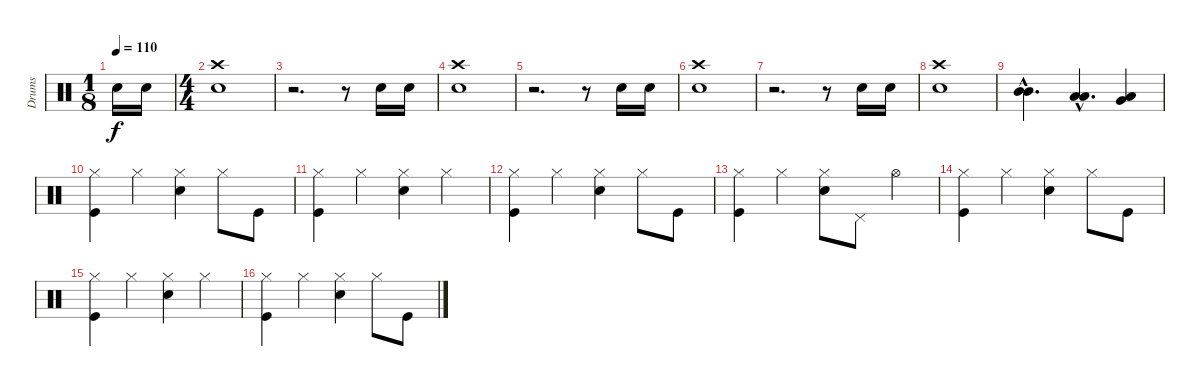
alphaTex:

\track ("Drums" "Drums") {instrument percussion}
\staff {score}
\articulation defaults
\ts (1 8)
\tempo 110
\clef neutral
\ks c "Electric Snare (hit)".16{dy f} "Electric Snare (hit)".16
|
\ts (4 4)
\section ("" "")
("Crash high (hit)" "Electric Snare (hit)").1 |
r.2{d} r.8 "Electric Snare (hit)".16 "Electric Snare (hit)".16 |
("Crash high (hit)" "Electric Snare (hit)").1 |
r.2{d} r.8 "Electric Snare (hit)".16 "Electric Snare (hit)".16 |
("Crash high (hit)" "Electric Snare (hit)").1 |
r.2{d} r.8 "Electric Snare (hit)".16 "Electric Snare (hit)".16 |
("Crash high (hit)" "Electric Snare (hit)").1 |
("Mid Tom (hit)"{hac} "Mid Tom (hit)"{hac}).4{d bu 60} ("Low Tom (hit)"{hac} "Low Tom (hit)"{hac}).4{d bu 60} ("Low Floor Tom (hit)" "Very Low Tom (hit)").4{bu 60} |
("Hi-Hat (closed)" "Kick (hit)").4 "Hi-Hat (closed)".4 ("Hi-Hat (closed)" "Electric Snare (hit)").4 "Hi-Hat (closed)".8 "Kick (hit)".8 |
("Hi-Hat (closed)" "Kick (hit)").4 "Hi-Hat (closed)".4 ("Hi-Hat (closed)" "Electric Snare (hit)").4 "Hi-Hat (closed)".4 |
("Hi-Hat (closed)" "Kick (hit)").4 "Hi-Hat (closed)".4 ("Hi-Hat (closed)" "Electric Snare (hit)").4 "Hi-Hat (closed)".8 "Kick (hit)".8 |
("Hi-Hat (closed)" "Kick (hit)").4 "Hi-Hat (closed)".4 ("Hi-Hat (closed)" "Electric Snare (hit)").8 "Pedal Hi-Hat (hit)".8 "Hi-Hat (open)".4 |
("Hi-Hat (closed)" "Kick (hit)").4 "Hi-Hat (closed)".4 ("Hi-Hat (closed)" "Electric Snare (hit)").4 "Hi-Hat (closed)".8 "Kick (hit)".8 |
("Hi-Hat (closed)" "Kick (hit)").4 "Hi-Hat (closed)".4 ("Hi-Hat (closed)" "Electric Snare (hit)").4 "Hi-Hat (closed)".4 |
("Hi-Hat (closed)" "Kick (hit)").4 "Hi-Hat (closed)".4 ("Hi-Hat (closed)" "Electric Snare (hit)").4 "Hi-Hat (closed)".8 "Kick (hit)".8
